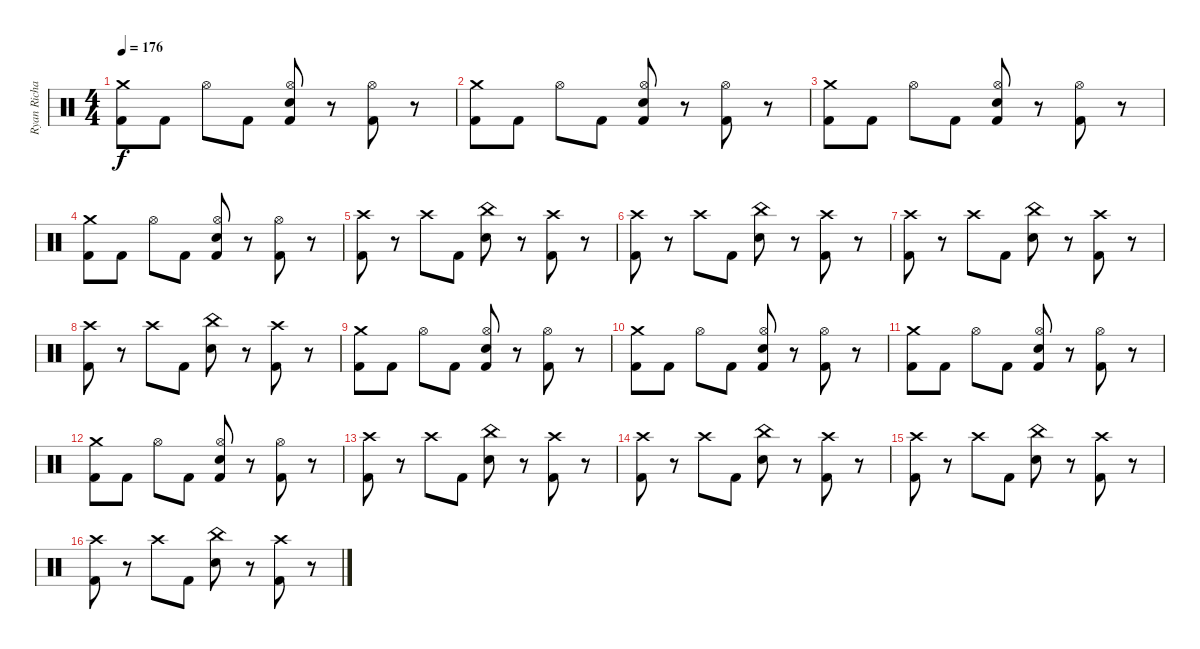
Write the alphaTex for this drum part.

\track ("Ryan Richards (drums)" "Ryan Richa") {instrument percussion}
\staff {score}
\articulation defaults
\ts (4 4)
\tempo 176
\clef neutral
\ks c
("Crash medium (hit)" "Kick (hit) 2").8{dy f} "Kick (hit) 2".8 "Hi-Hat (open)".8 "Kick (hit) 2".8 ("Snare (hit) 2" "Hi-Hat (open)" "Kick (hit) 2").8 r.8 ("Hi-Hat (open)" "Kick (hit) 2").8 r.8 |
("Crash medium (hit)" "Kick (hit) 2").8 "Kick (hit) 2".8 "Hi-Hat (open)".8 "Kick (hit) 2".8 ("Snare (hit) 2" "Hi-Hat (open)" "Kick (hit) 2").8 r.8 ("Hi-Hat (open)" "Kick (hit) 2").8 r.8 |
("Crash medium (hit)" "Kick (hit) 2").8 "Kick (hit) 2".8 "Hi-Hat (open)".8 "Kick (hit) 2".8 ("Snare (hit) 2" "Hi-Hat (open)" "Kick (hit) 2").8 r.8 ("Hi-Hat (open)" "Kick (hit) 2").8 r.8 |
("Crash medium (hit)" "Kick (hit) 2").8 "Kick (hit) 2".8 "Hi-Hat (open)".8 "Kick (hit) 2".8 ("Snare (hit) 2" "Hi-Hat (open)" "Kick (hit) 2").8 r.8 ("Hi-Hat (open)" "Kick (hit) 2").8 r.8 |
("Crash high (hit)" "Kick (hit) 2").8 r.8 "Crash high (hit)".8 "Kick (hit) 2".8 ("Snare (hit) 2" "China (hit)").8 r.8 ("Crash high (hit)" "Kick (hit) 2").8 r.8 |
("Crash high (hit)" "Kick (hit) 2").8 r.8 "Crash high (hit)".8 "Kick (hit) 2".8 ("Snare (hit) 2" "China (hit)").8 r.8 ("Crash high (hit)" "Kick (hit) 2").8 r.8 |
("Crash high (hit)" "Kick (hit) 2").8 r.8 "Crash high (hit)".8 "Kick (hit) 2".8 ("Snare (hit) 2" "China (hit)").8 r.8 ("Crash high (hit)" "Kick (hit) 2").8 r.8 |
("Crash high (hit)" "Kick (hit) 2").8 r.8 "Crash high (hit)".8 "Kick (hit) 2".8 ("Snare (hit) 2" "China (hit)").8 r.8 ("Crash high (hit)" "Kick (hit) 2").8 r.8 |
("Crash medium (hit)" "Kick (hit) 2").8 "Kick (hit) 2".8 "Hi-Hat (open)".8 "Kick (hit) 2".8 ("Snare (hit) 2" "Hi-Hat (open)" "Kick (hit) 2").8 r.8 ("Hi-Hat (open)" "Kick (hit) 2").8 r.8 |
("Crash medium (hit)" "Kick (hit) 2").8 "Kick (hit) 2".8 "Hi-Hat (open)".8 "Kick (hit) 2".8 ("Snare (hit) 2" "Hi-Hat (open)" "Kick (hit) 2").8 r.8 ("Hi-Hat (open)" "Kick (hit) 2").8 r.8 |
("Crash medium (hit)" "Kick (hit) 2").8 "Kick (hit) 2".8 "Hi-Hat (open)".8 "Kick (hit) 2".8 ("Snare (hit) 2" "Hi-Hat (open)" "Kick (hit) 2").8 r.8 ("Hi-Hat (open)" "Kick (hit) 2").8 r.8 |
("Crash medium (hit)" "Kick (hit) 2").8 "Kick (hit) 2".8 "Hi-Hat (open)".8 "Kick (hit) 2".8 ("Snare (hit) 2" "Hi-Hat (open)" "Kick (hit) 2").8 r.8 ("Hi-Hat (open)" "Kick (hit) 2").8 r.8 |
("Crash high (hit)" "Kick (hit) 2").8 r.8 "Crash high (hit)".8 "Kick (hit) 2".8 ("Snare (hit) 2" "China (hit)").8 r.8 ("Crash high (hit)" "Kick (hit) 2").8 r.8 |
("Crash high (hit)" "Kick (hit) 2").8 r.8 "Crash high (hit)".8 "Kick (hit) 2".8 ("Snare (hit) 2" "China (hit)").8 r.8 ("Crash high (hit)" "Kick (hit) 2").8 r.8 |
("Crash high (hit)" "Kick (hit) 2").8 r.8 "Crash high (hit)".8 "Kick (hit) 2".8 ("Snare (hit) 2" "China (hit)").8 r.8 ("Crash high (hit)" "Kick (hit) 2").8 r.8 |
("Crash high (hit)" "Kick (hit) 2").8 r.8 "Crash high (hit)".8 "Kick (hit) 2".8 ("Snare (hit) 2" "China (hit)").8 r.8 ("Crash high (hit)" "Kick (hit) 2").8 r.8
